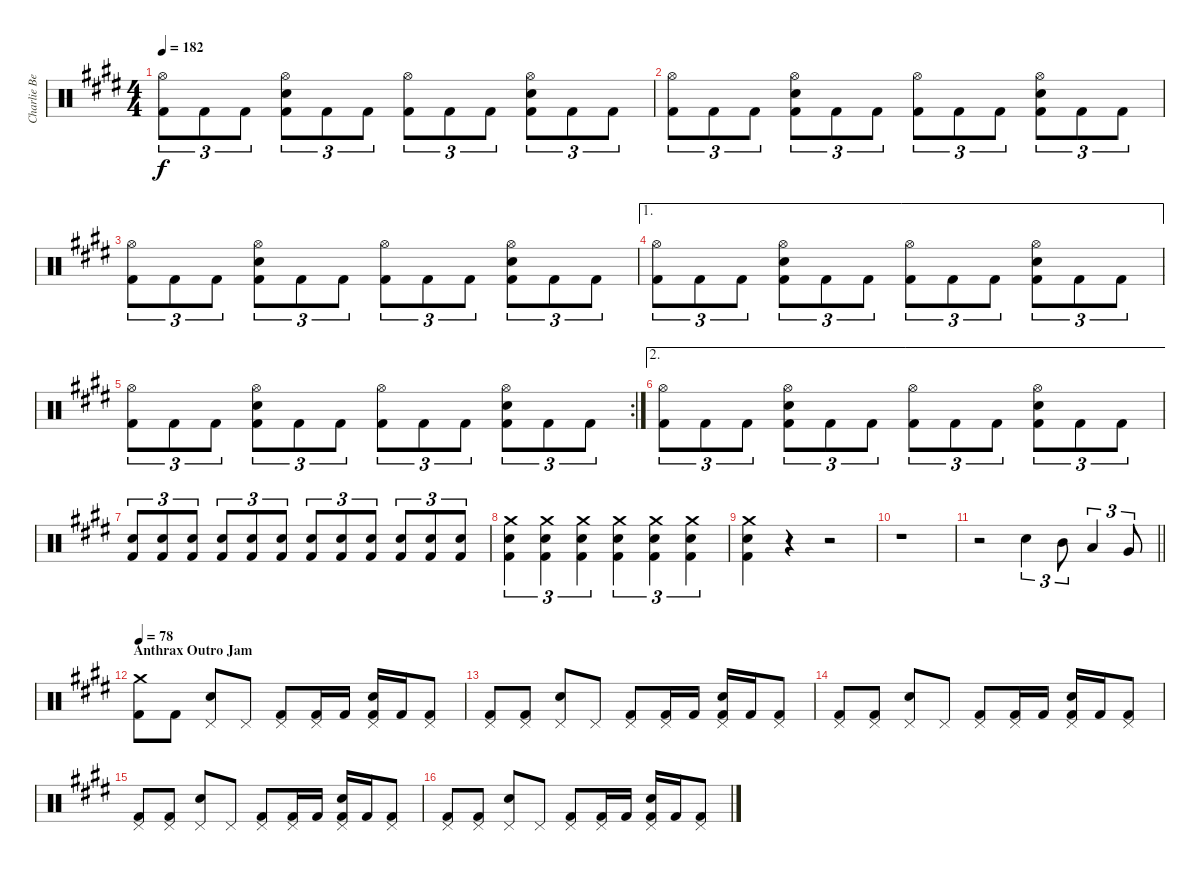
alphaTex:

\track ("Charlie Benate " "Charlie Be") {instrument percussion}
\staff {score}
\articulation defaults
\ts (4 4)
\tempo 182
\clef neutral
\ks e
("Hi-Hat (open)" "Kick (hit) 2").8{tu (3 2) dy f} "Kick (hit) 2".8{tu (3 2)} "Kick (hit) 2".8{tu (3 2)} ("Hi-Hat (open)" "Snare (hit) 2" "Kick (hit) 2").8{tu (3 2)} "Kick (hit) 2".8{tu (3 2)} "Kick (hit) 2".8{tu (3 2)} ("Hi-Hat (open)" "Kick (hit) 2").8{tu (3 2)} "Kick (hit) 2".8{tu (3 2)} "Kick (hit) 2".8{tu (3 2)} ("Hi-Hat (open)" "Snare (hit) 2" "Kick (hit) 2").8{tu (3 2)} "Kick (hit) 2".8{tu (3 2)} "Kick (hit) 2".8{tu (3 2)} |
("Hi-Hat (open)" "Kick (hit) 2").8{tu (3 2)} "Kick (hit) 2".8{tu (3 2)} "Kick (hit) 2".8{tu (3 2)} ("Hi-Hat (open)" "Snare (hit) 2" "Kick (hit) 2").8{tu (3 2)} "Kick (hit) 2".8{tu (3 2)} "Kick (hit) 2".8{tu (3 2)} ("Hi-Hat (open)" "Kick (hit) 2").8{tu (3 2)} "Kick (hit) 2".8{tu (3 2)} "Kick (hit) 2".8{tu (3 2)} ("Hi-Hat (open)" "Snare (hit) 2" "Kick (hit) 2").8{tu (3 2)} "Kick (hit) 2".8{tu (3 2)} "Kick (hit) 2".8{tu (3 2)} |
("Hi-Hat (open)" "Kick (hit) 2").8{tu (3 2)} "Kick (hit) 2".8{tu (3 2)} "Kick (hit) 2".8{tu (3 2)} ("Hi-Hat (open)" "Snare (hit) 2" "Kick (hit) 2").8{tu (3 2)} "Kick (hit) 2".8{tu (3 2)} "Kick (hit) 2".8{tu (3 2)} ("Hi-Hat (open)" "Kick (hit) 2").8{tu (3 2)} "Kick (hit) 2".8{tu (3 2)} "Kick (hit) 2".8{tu (3 2)} ("Hi-Hat (open)" "Snare (hit) 2" "Kick (hit) 2").8{tu (3 2)} "Kick (hit) 2".8{tu (3 2)} "Kick (hit) 2".8{tu (3 2)} |
\ae 1
("Hi-Hat (open)" "Kick (hit) 2").8{tu (3 2)} "Kick (hit) 2".8{tu (3 2)} "Kick (hit) 2".8{tu (3 2)} ("Hi-Hat (open)" "Snare (hit) 2" "Kick (hit) 2").8{tu (3 2)} "Kick (hit) 2".8{tu (3 2)} "Kick (hit) 2".8{tu (3 2)} ("Hi-Hat (open)" "Kick (hit) 2").8{tu (3 2)} "Kick (hit) 2".8{tu (3 2)} "Kick (hit) 2".8{tu (3 2)} ("Hi-Hat (open)" "Snare (hit) 2" "Kick (hit) 2").8{tu (3 2)} "Kick (hit) 2".8{tu (3 2)} "Kick (hit) 2".8{tu (3 2)} |
\rc 2
("Hi-Hat (open)" "Kick (hit) 2").8{tu (3 2)} "Kick (hit) 2".8{tu (3 2)} "Kick (hit) 2".8{tu (3 2)} ("Hi-Hat (open)" "Snare (hit) 2" "Kick (hit) 2").8{tu (3 2)} "Kick (hit) 2".8{tu (3 2)} "Kick (hit) 2".8{tu (3 2)} ("Hi-Hat (open)" "Kick (hit) 2").8{tu (3 2)} "Kick (hit) 2".8{tu (3 2)} "Kick (hit) 2".8{tu (3 2)} ("Hi-Hat (open)" "Snare (hit) 2" "Kick (hit) 2").8{tu (3 2)} "Kick (hit) 2".8{tu (3 2)} "Kick (hit) 2".8{tu (3 2)} |
\ae 2
("Hi-Hat (open)" "Kick (hit) 2").8{tu (3 2)} "Kick (hit) 2".8{tu (3 2)} "Kick (hit) 2".8{tu (3 2)} ("Hi-Hat (open)" "Snare (hit) 2" "Kick (hit) 2").8{tu (3 2)} "Kick (hit) 2".8{tu (3 2)} "Kick (hit) 2".8{tu (3 2)} ("Hi-Hat (open)" "Kick (hit) 2").8{tu (3 2)} "Kick (hit) 2".8{tu (3 2)} "Kick (hit) 2".8{tu (3 2)} ("Hi-Hat (open)" "Snare (hit) 2" "Kick (hit) 2").8{tu (3 2)} "Kick (hit) 2".8{tu (3 2)} "Kick (hit) 2".8{tu (3 2)} |
("Snare (hit) 2" "Kick (hit) 2").8{tu (3 2)} ("Snare (hit) 2" "Kick (hit) 2").8{tu (3 2)} ("Snare (hit) 2" "Kick (hit) 2").8{tu (3 2)} ("Snare (hit) 2" "Kick (hit) 2").8{tu (3 2)} ("Snare (hit) 2" "Kick (hit) 2").8{tu (3 2)} ("Snare (hit) 2" "Kick (hit) 2").8{tu (3 2)} ("Snare (hit) 2" "Kick (hit) 2").8{tu (3 2)} ("Snare (hit) 2" "Kick (hit) 2").8{tu (3 2)} ("Snare (hit) 2" "Kick (hit) 2").8{tu (3 2)} ("Snare (hit) 2" "Kick (hit) 2").8{tu (3 2)} ("Snare (hit) 2" "Kick (hit) 2").8{tu (3 2)} ("Snare (hit) 2" "Kick (hit) 2").8{tu (3 2)} |
("Crash medium (hit)" "Snare (hit) 2" "Kick (hit) 2").4{tu (3 2)} ("Crash medium (hit)" "Snare (hit) 2" "Kick (hit) 2").4{tu (3 2)} ("Crash medium (hit)" "Snare (hit) 2" "Kick (hit) 2").4{tu (3 2)} ("Crash medium (hit)" "Snare (hit) 2" "Kick (hit) 2").4{tu (3 2)} ("Crash medium (hit)" "Snare (hit) 2" "Kick (hit) 2").4{tu (3 2)} ("Crash medium (hit)" "Snare (hit) 2" "Kick (hit) 2").4{tu (3 2)} |
("Crash medium (hit)" "Snare (hit) 2" "Kick (hit) 2").4 r.4 r.2 |
r.1 |
\barLineRight lightlight
r.2 "Snare (hit) 2".4{tu (3 2)} "Mid Tom (hit)".8{tu (3 2)} "Low Tom (hit)".4{tu (3 2)} "Very Low Tom (hit)".8{tu (3 2)} |
\section ("" "Anthrax Outro Jam")
\tempo 78
("Crash medium (hit)" "Kick (hit) 2").8 "Kick (hit) 2".8 ("Pedal Hi-Hat (hit)" "Snare (hit) 2").8 "Pedal Hi-Hat (hit)".8 ("Pedal Hi-Hat (hit)" "Kick (hit) 2").8 ("Pedal Hi-Hat (hit)" "Kick (hit) 2").16 "Kick (hit) 2".16 ("Pedal Hi-Hat (hit)" "Snare (hit) 2" "Kick (hit) 2").16 "Kick (hit) 2".16 ("Pedal Hi-Hat (hit)" "Kick (hit) 2").8 |
("Pedal Hi-Hat (hit)" "Kick (hit) 2").8 ("Pedal Hi-Hat (hit)" "Kick (hit) 2").8 ("Pedal Hi-Hat (hit)" "Snare (hit) 2").8 "Pedal Hi-Hat (hit)".8 ("Pedal Hi-Hat (hit)" "Kick (hit) 2").8 ("Pedal Hi-Hat (hit)" "Kick (hit) 2").16 "Kick (hit) 2".16 ("Pedal Hi-Hat (hit)" "Snare (hit) 2" "Kick (hit) 2").16 "Kick (hit) 2".16 ("Pedal Hi-Hat (hit)" "Kick (hit) 2").8 |
("Pedal Hi-Hat (hit)" "Kick (hit) 2").8 ("Pedal Hi-Hat (hit)" "Kick (hit) 2").8 ("Pedal Hi-Hat (hit)" "Snare (hit) 2").8 "Pedal Hi-Hat (hit)".8 ("Pedal Hi-Hat (hit)" "Kick (hit) 2").8 ("Pedal Hi-Hat (hit)" "Kick (hit) 2").16 "Kick (hit) 2".16 ("Pedal Hi-Hat (hit)" "Snare (hit) 2" "Kick (hit) 2").16 "Kick (hit) 2".16 ("Pedal Hi-Hat (hit)" "Kick (hit) 2").8 |
("Pedal Hi-Hat (hit)" "Kick (hit) 2").8 ("Pedal Hi-Hat (hit)" "Kick (hit) 2").8 ("Pedal Hi-Hat (hit)" "Snare (hit) 2").8 "Pedal Hi-Hat (hit)".8 ("Pedal Hi-Hat (hit)" "Kick (hit) 2").8 ("Pedal Hi-Hat (hit)" "Kick (hit) 2").16 "Kick (hit) 2".16 ("Pedal Hi-Hat (hit)" "Snare (hit) 2" "Kick (hit) 2").16 "Kick (hit) 2".16 ("Pedal Hi-Hat (hit)" "Kick (hit) 2").8 |
("Pedal Hi-Hat (hit)" "Kick (hit) 2").8 ("Pedal Hi-Hat (hit)" "Kick (hit) 2").8 ("Pedal Hi-Hat (hit)" "Snare (hit) 2").8 "Pedal Hi-Hat (hit)".8 ("Pedal Hi-Hat (hit)" "Kick (hit) 2").8 ("Pedal Hi-Hat (hit)" "Kick (hit) 2").16 "Kick (hit) 2".16 ("Pedal Hi-Hat (hit)" "Snare (hit) 2" "Kick (hit) 2").16 "Kick (hit) 2".16 ("Pedal Hi-Hat (hit)" "Kick (hit) 2").8
